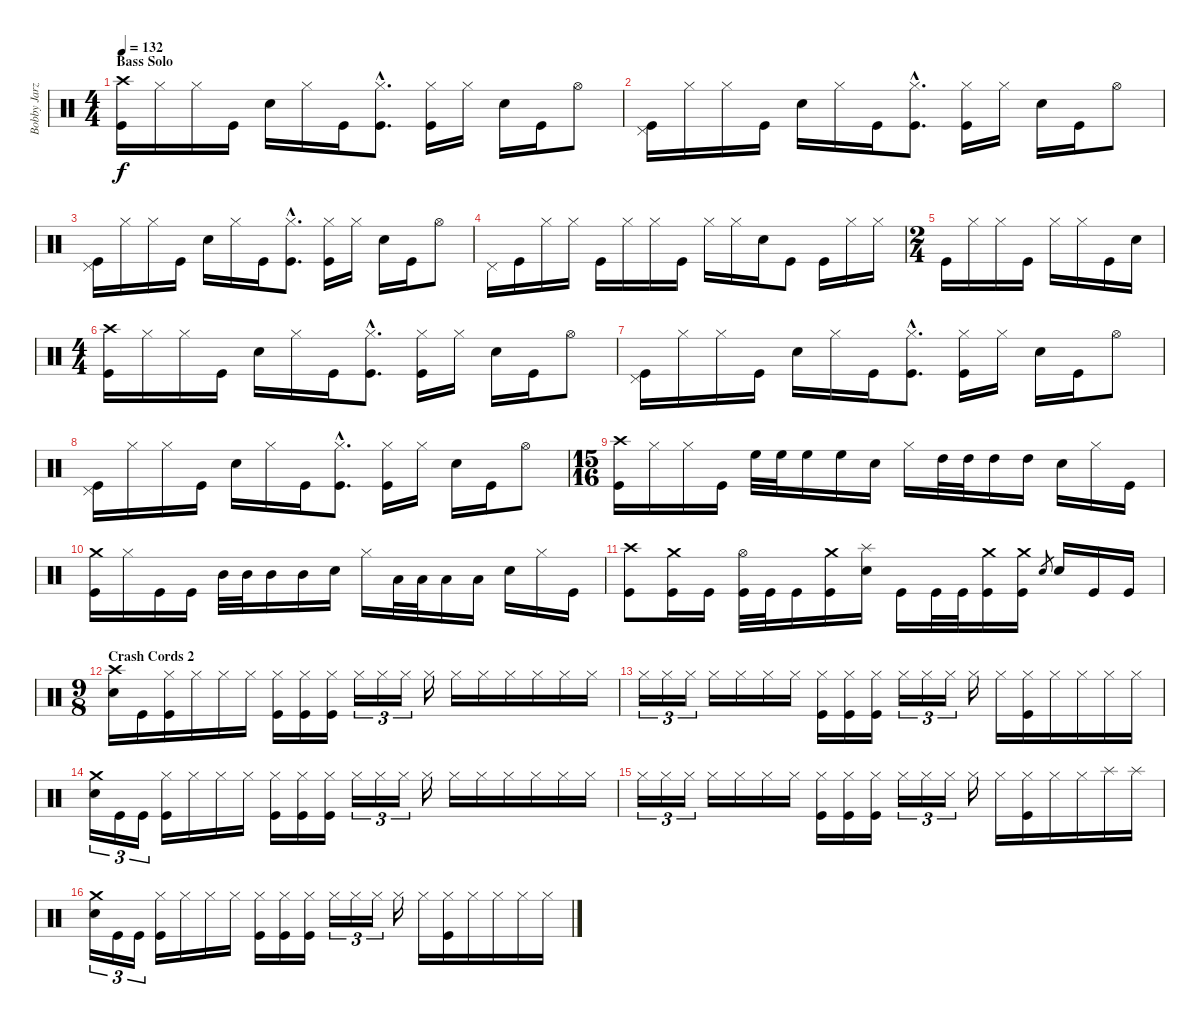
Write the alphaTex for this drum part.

\track ("Bobby Jarzombek" "Bobby Jarz") {instrument percussion}
\staff {score}
\articulation defaults
\ts (4 4)
\section ("" "Bass Solo")
\tempo 132
\clef neutral
\ks c
("Crash high (hit)" "Kick (hit)").16{dy f} "Hi-Hat (closed)".16 "Hi-Hat (closed)".16 "Kick (hit)".16 "Electric Snare (hit)".16 "Hi-Hat (closed)".16 "Kick (hit)".16 ("Hi-Hat (closed)"{hac} "Kick (hit)"{hac}).8{d} ("Hi-Hat (closed)" "Kick (hit)").16 "Hi-Hat (closed)".16 "Electric Snare (hit)".16 "Kick (hit)".16 "Hi-Hat (open)".8 |
("Pedal Hi-Hat (hit)" "Kick (hit)").16 "Hi-Hat (closed)".16 "Hi-Hat (closed)".16 "Kick (hit)".16 "Electric Snare (hit)".16 "Hi-Hat (closed)".16 "Kick (hit)".16 ("Hi-Hat (closed)"{hac} "Kick (hit)"{hac}).8{d} ("Hi-Hat (closed)" "Kick (hit)").16 "Hi-Hat (closed)".16 "Electric Snare (hit)".16 "Kick (hit)".16 "Hi-Hat (open)".8 |
("Pedal Hi-Hat (hit)" "Kick (hit)").16 "Hi-Hat (closed)".16 "Hi-Hat (closed)".16 "Kick (hit)".16 "Electric Snare (hit)".16 "Hi-Hat (closed)".16 "Kick (hit)".16 ("Hi-Hat (closed)"{hac} "Kick (hit)"{hac}).8{d} ("Hi-Hat (closed)" "Kick (hit)").16 "Hi-Hat (closed)".16 "Electric Snare (hit)".16 "Kick (hit)".16 "Hi-Hat (open)".8 |
"Pedal Hi-Hat (hit)".16 "Kick (hit)".16 "Hi-Hat (closed)".16 "Hi-Hat (closed)".16 "Kick (hit)".16 "Hi-Hat (closed)".16 "Hi-Hat (closed)".16 "Kick (hit)".16 "Hi-Hat (closed)".16 "Hi-Hat (closed)".16 "Electric Snare (hit)".16 "Kick (hit)".8 "Kick (hit)".16 "Hi-Hat (closed)".16 "Hi-Hat (closed)".16 |
\ts (2 4)
"Kick (hit)".16 "Hi-Hat (closed)".16 "Hi-Hat (closed)".16 "Kick (hit)".16 "Hi-Hat (closed)".16 "Hi-Hat (closed)".16 "Kick (hit)".16 "Electric Snare (hit)".16 |
\ts (4 4)
("Crash high (hit)" "Kick (hit)").16 "Hi-Hat (closed)".16 "Hi-Hat (closed)".16 "Kick (hit)".16 "Electric Snare (hit)".16 "Hi-Hat (closed)".16 "Kick (hit)".16 ("Hi-Hat (closed)"{hac} "Kick (hit)"{hac}).8{d} ("Hi-Hat (closed)" "Kick (hit)").16 "Hi-Hat (closed)".16 "Electric Snare (hit)".16 "Kick (hit)".16 "Hi-Hat (open)".8 |
("Pedal Hi-Hat (hit)" "Kick (hit)").16 "Hi-Hat (closed)".16 "Hi-Hat (closed)".16 "Kick (hit)".16 "Electric Snare (hit)".16 "Hi-Hat (closed)".16 "Kick (hit)".16 ("Hi-Hat (closed)"{hac} "Kick (hit)"{hac}).8{d} ("Hi-Hat (closed)" "Kick (hit)").16 "Hi-Hat (closed)".16 "Electric Snare (hit)".16 "Kick (hit)".16 "Hi-Hat (open)".8 |
("Pedal Hi-Hat (hit)" "Kick (hit)").16 "Hi-Hat (closed)".16 "Hi-Hat (closed)".16 "Kick (hit)".16 "Electric Snare (hit)".16 "Hi-Hat (closed)".16 "Kick (hit)".16 ("Hi-Hat (closed)"{hac} "Kick (hit)"{hac}).8{d} ("Hi-Hat (closed)" "Kick (hit)").16 "Hi-Hat (closed)".16 "Electric Snare (hit)".16 "Kick (hit)".16 "Hi-Hat (open)".8 |
\ts (15 16)
("Crash high (hit)" "Kick (hit)").16 "Hi-Hat (closed)".16 "Hi-Hat (closed)".16 "Kick (hit)".16 "High Floor Tom (hit)".32 "High Floor Tom (hit)".32 "High Floor Tom (hit)".16 "High Floor Tom (hit)".16 "Electric Snare (hit)".16 "Hi-Hat (closed)".16 "High Tom (hit)".32 "High Tom (hit)".32 "High Tom (hit)".16 "High Tom (hit)".16 "Electric Snare (hit)".16 "Hi-Hat (closed)".16 "Kick (hit)".16 |
("Crash medium (hit)" "Kick (hit)").16 "Hi-Hat (closed)".16 "Kick (hit)".16 "Kick (hit)".16 "Mid Tom (hit)".32 "Mid Tom (hit)".32 "Mid Tom (hit)".16 "Mid Tom (hit)".16 "Electric Snare (hit)".16 "Hi-Hat (closed)".16 "Low Tom (hit)".32 "Low Tom (hit)".32 "Low Tom (hit)".16 "Low Tom (hit)".16 "Electric Snare (hit)".16 "Hi-Hat (closed)".16 "Kick (hit)".16 |
("Crash high (hit)" "Kick (hit)").8 ("Crash medium (hit)" "Kick (hit)").16 "Kick (hit)".16 ("Hi-Hat (open)" "Kick (hit)").32 "Kick (hit)".32 "Kick (hit)".16 ("Crash medium (hit)" "Kick (hit)").16 ("Splash (hit)" "Electric Snare (hit)").16 "Kick (hit)".16 "Kick (hit)".32 "Kick (hit)".32 ("Crash medium (hit)" "Kick (hit)").16 ("Crash medium (hit)" "Kick (hit)").16 "Electric Snare (hit)".8{gr} "Electric Snare (hit)".16 "Kick (hit)".16 "Kick (hit)".16 |
\ts (9 8)
\section ("" "Crash Cords 2")
("Crash high (hit)" "Electric Snare (hit)").16 "Kick (hit)".16 ("Hi-Hat (closed)" "Kick (hit)").16 "Hi-Hat (closed)".16 "Hi-Hat (closed)".16 "Hi-Hat (closed)".16 ("Hi-Hat (closed)" "Kick (hit)").16 ("Hi-Hat (closed)" "Kick (hit)").16 ("Hi-Hat (closed)" "Kick (hit)").16 "Hi-Hat (closed)".16{tu (3 2)} "Hi-Hat (closed)".16{tu (3 2)} "Hi-Hat (closed)".16{tu (3 2)} "Hi-Hat (closed)".16 "Hi-Hat (closed)".16 "Hi-Hat (closed)".16 "Hi-Hat (closed)".16 "Hi-Hat (closed)".16 "Hi-Hat (closed)".16 "Hi-Hat (closed)".16 |
"Hi-Hat (closed)".16{tu (3 2)} "Hi-Hat (closed)".16{tu (3 2)} "Hi-Hat (closed)".16{tu (3 2)} "Hi-Hat (closed)".16 "Hi-Hat (closed)".16 "Hi-Hat (closed)".16 "Hi-Hat (closed)".16 ("Hi-Hat (closed)" "Kick (hit)").16 ("Hi-Hat (closed)" "Kick (hit)").16 ("Hi-Hat (closed)" "Kick (hit)").16 "Hi-Hat (closed)".16{tu (3 2)} "Hi-Hat (closed)".16{tu (3 2)} "Hi-Hat (closed)".16{tu (3 2)} "Hi-Hat (closed)".16 "Hi-Hat (closed)".16 ("Hi-Hat (closed)" "Kick (hit)").16 "Hi-Hat (closed)".16 "Hi-Hat (closed)".16 "Hi-Hat (closed)".16 "Hi-Hat (closed)".16 |
("Crash medium (hit)" "Electric Snare (hit)").16{tu (3 2)} "Kick (hit)".16{tu (3 2)} "Kick (hit)".16{tu (3 2)} ("Hi-Hat (closed)" "Kick (hit)").16 "Hi-Hat (closed)".16 "Hi-Hat (closed)".16 "Hi-Hat (closed)".16 ("Hi-Hat (closed)" "Kick (hit)").16 ("Hi-Hat (closed)" "Kick (hit)").16 ("Hi-Hat (closed)" "Kick (hit)").16 "Hi-Hat (closed)".16{tu (3 2)} "Hi-Hat (closed)".16{tu (3 2)} "Hi-Hat (closed)".16{tu (3 2)} "Hi-Hat (closed)".16 "Hi-Hat (closed)".16 "Hi-Hat (closed)".16 "Hi-Hat (closed)".16 "Hi-Hat (closed)".16 "Hi-Hat (closed)".16 "Hi-Hat (closed)".16 |
"Hi-Hat (closed)".16{tu (3 2)} "Hi-Hat (closed)".16{tu (3 2)} "Hi-Hat (closed)".16{tu (3 2)} "Hi-Hat (closed)".16 "Hi-Hat (closed)".16 "Hi-Hat (closed)".16 "Hi-Hat (closed)".16 ("Hi-Hat (closed)" "Kick (hit)").16 ("Hi-Hat (closed)" "Kick (hit)").16 ("Hi-Hat (closed)" "Kick (hit)").16 "Hi-Hat (closed)".16{tu (3 2)} "Hi-Hat (closed)".16{tu (3 2)} "Hi-Hat (closed)".16{tu (3 2)} "Hi-Hat (closed)".16 "Hi-Hat (closed)".16 ("Hi-Hat (closed)" "Kick (hit)").16 "Hi-Hat (closed)".16 "Hi-Hat (closed)".16 "Splash (hit)".16 "Splash (hit)".16 |
("Crash medium (hit)" "Electric Snare (hit)").16{tu (3 2)} "Kick (hit)".16{tu (3 2)} "Kick (hit)".16{tu (3 2)} ("Hi-Hat (closed)" "Kick (hit)").16 "Hi-Hat (closed)".16 "Hi-Hat (closed)".16 "Hi-Hat (closed)".16 ("Hi-Hat (closed)" "Kick (hit)").16 ("Hi-Hat (closed)" "Kick (hit)").16 ("Hi-Hat (closed)" "Kick (hit)").16 "Hi-Hat (closed)".16{tu (3 2)} "Hi-Hat (closed)".16{tu (3 2)} "Hi-Hat (closed)".16{tu (3 2)} "Hi-Hat (closed)".16 "Hi-Hat (closed)".16 ("Hi-Hat (closed)" "Kick (hit)").16 "Hi-Hat (closed)".16 "Hi-Hat (closed)".16 "Hi-Hat (closed)".16 "Hi-Hat (closed)".16
